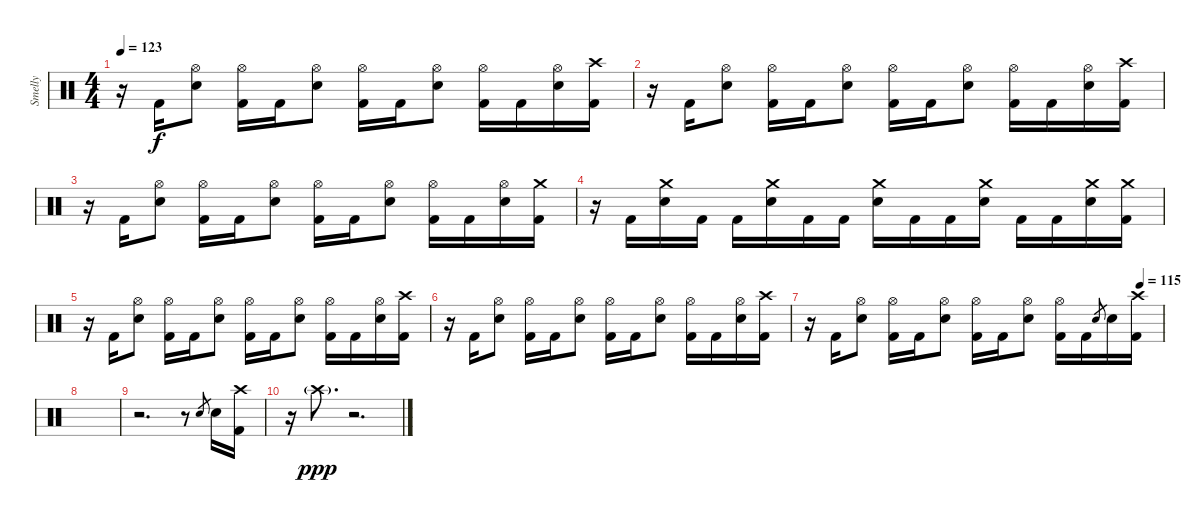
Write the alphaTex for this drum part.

\track ("Smelly" "Smelly") {instrument percussion}
\staff {score}
\articulation defaults
\ts (4 4)
\tempo 123
\clef neutral
\ks c
r.16{dy f} "Kick (hit) 2".16 ("Hi-Hat (open)" "Electric Snare (hit)").8 ("Hi-Hat (open)" "Kick (hit) 2").16 "Kick (hit) 2".16 ("Hi-Hat (open)" "Electric Snare (hit)").8 ("Hi-Hat (open)" "Kick (hit) 2").16 "Kick (hit) 2".16 ("Hi-Hat (open)" "Electric Snare (hit)").8 ("Hi-Hat (open)" "Kick (hit) 2").16 "Kick (hit) 2".16 ("Hi-Hat (open)" "Electric Snare (hit)").16 ("Crash high (hit)" "Kick (hit) 2").16 |
r.16 "Kick (hit) 2".16 ("Hi-Hat (open)" "Electric Snare (hit)").8 ("Hi-Hat (open)" "Kick (hit) 2").16 "Kick (hit) 2".16 ("Hi-Hat (open)" "Electric Snare (hit)").8 ("Hi-Hat (open)" "Kick (hit) 2").16 "Kick (hit) 2".16 ("Hi-Hat (open)" "Electric Snare (hit)").8 ("Hi-Hat (open)" "Kick (hit) 2").16 "Kick (hit) 2".16 ("Hi-Hat (open)" "Electric Snare (hit)").16 ("Crash high (hit)" "Kick (hit) 2").16 |
r.16 "Kick (hit) 2".16 ("Hi-Hat (open)" "Electric Snare (hit)").8 ("Hi-Hat (open)" "Kick (hit) 2").16 "Kick (hit) 2".16 ("Hi-Hat (open)" "Electric Snare (hit)").8 ("Hi-Hat (open)" "Kick (hit) 2").16 "Kick (hit) 2".16 ("Hi-Hat (open)" "Electric Snare (hit)").8 ("Hi-Hat (open)" "Kick (hit) 2").16 "Kick (hit) 2".16 ("Hi-Hat (open)" "Electric Snare (hit)").16 ("Crash medium (hit)" "Kick (hit) 2").16 |
r.16 "Kick (hit) 2".16 ("Crash medium (hit)" "Electric Snare (hit)").16 "Kick (hit) 2".16 "Kick (hit) 2".16 ("Crash medium (hit)" "Electric Snare (hit)").16 "Kick (hit) 2".16 "Kick (hit) 2".16 ("Crash medium (hit)" "Electric Snare (hit)").16 "Kick (hit) 2".16 "Kick (hit) 2".16 ("Crash medium (hit)" "Electric Snare (hit)").16 "Kick (hit) 2".16 "Kick (hit) 2".16 ("Crash medium (hit)" "Electric Snare (hit)").16 ("Crash medium (hit)" "Kick (hit) 2").16 |
r.16 "Kick (hit) 2".16 ("Hi-Hat (open)" "Electric Snare (hit)").8 ("Hi-Hat (open)" "Kick (hit) 2").16 "Kick (hit) 2".16 ("Hi-Hat (open)" "Electric Snare (hit)").8 ("Hi-Hat (open)" "Kick (hit) 2").16 "Kick (hit) 2".16 ("Hi-Hat (open)" "Electric Snare (hit)").8 ("Hi-Hat (open)" "Kick (hit) 2").16 "Kick (hit) 2".16 ("Hi-Hat (open)" "Electric Snare (hit)").16 ("Crash high (hit)" "Kick (hit) 2").16 |
r.16 "Kick (hit) 2".16 ("Hi-Hat (open)" "Electric Snare (hit)").8 ("Hi-Hat (open)" "Kick (hit) 2").16 "Kick (hit) 2".16 ("Hi-Hat (open)" "Electric Snare (hit)").8 ("Hi-Hat (open)" "Kick (hit) 2").16 "Kick (hit) 2".16 ("Hi-Hat (open)" "Electric Snare (hit)").8 ("Hi-Hat (open)" "Kick (hit) 2").16 "Kick (hit) 2".16 ("Hi-Hat (open)" "Electric Snare (hit)").16 ("Crash high (hit)" "Kick (hit) 2").16 |
\tempo (115 0.9375)
r.16 "Kick (hit) 2".16 ("Hi-Hat (open)" "Electric Snare (hit)").8 ("Hi-Hat (open)" "Kick (hit) 2").16 "Kick (hit) 2".16 ("Hi-Hat (open)" "Electric Snare (hit)").8 ("Hi-Hat (open)" "Kick (hit) 2").16 "Kick (hit) 2".16 ("Hi-Hat (open)" "Electric Snare (hit)").8 ("Hi-Hat (open)" "Kick (hit) 2").16 "Kick (hit) 2".16 "Electric Snare (hit)".8{gr} "Electric Snare (hit)".16 ("Crash high (hit)" "Kick (hit) 2").16 |
|
r.2{d} r.8 "Electric Snare (hit)".8{gr} "Electric Snare (hit)".16 ("Crash high (hit)" "Kick (hit) 2").16 |
r.16 "Crash high (hit)"{g}.8{d dy ppp} r.2{d}
